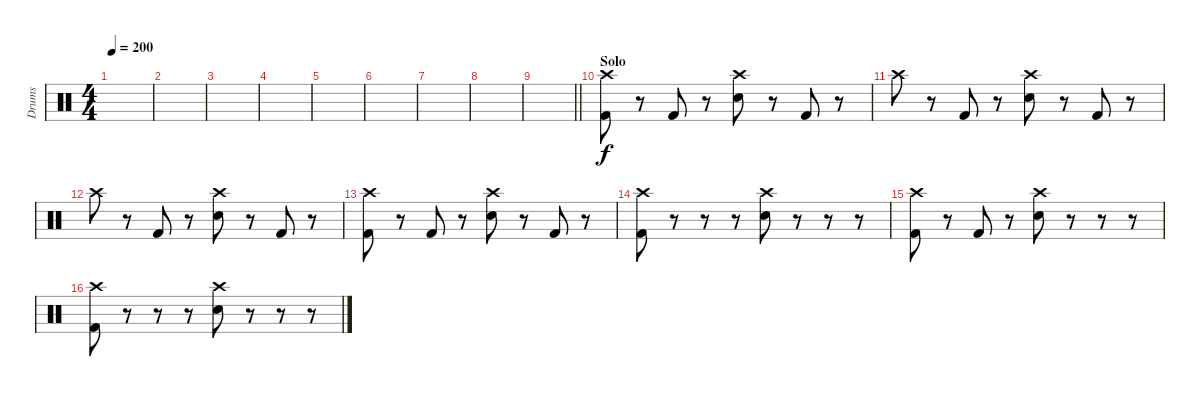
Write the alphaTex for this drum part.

\track ("Drums" "Drums") {instrument percussion}
\staff {score}
\articulation defaults
\ts (4 4)
\tempo 200
\clef neutral
\ks c
|
|
|
|
|
|
|
|
\barLineRight lightlight
|
\section ("" "Solo")
("Crash high (hit)" "Kick (hit) 2").8 r.8 "Kick (hit) 2".8 r.8 ("Crash high (hit)" "Electric Snare (hit)").8 r.8 "Kick (hit) 2".8 r.8 |
"Crash high (hit)".8 r.8 "Kick (hit) 2".8 r.8 ("Crash high (hit)" "Electric Snare (hit)").8 r.8 "Kick (hit) 2".8 r.8 |
"Crash high (hit)".8 r.8 "Kick (hit) 2".8 r.8 ("Crash high (hit)" "Electric Snare (hit)").8 r.8 "Kick (hit) 2".8 r.8 |
("Crash high (hit)" "Kick (hit) 2").8 r.8 "Kick (hit) 2".8 r.8 ("Crash high (hit)" "Electric Snare (hit)").8 r.8 "Kick (hit) 2".8 r.8 |
("Crash high (hit)" "Kick (hit) 2").8 r.8 r.8 r.8 ("Crash high (hit)" "Electric Snare (hit)").8 r.8 r.8 r.8 |
("Crash high (hit)" "Kick (hit) 2").8 r.8 "Kick (hit) 2".8 r.8 ("Crash high (hit)" "Electric Snare (hit)").8 r.8 r.8 r.8 |
("Crash high (hit)" "Kick (hit) 2").8 r.8 r.8 r.8 ("Crash high (hit)" "Electric Snare (hit)").8 r.8 r.8 r.8
